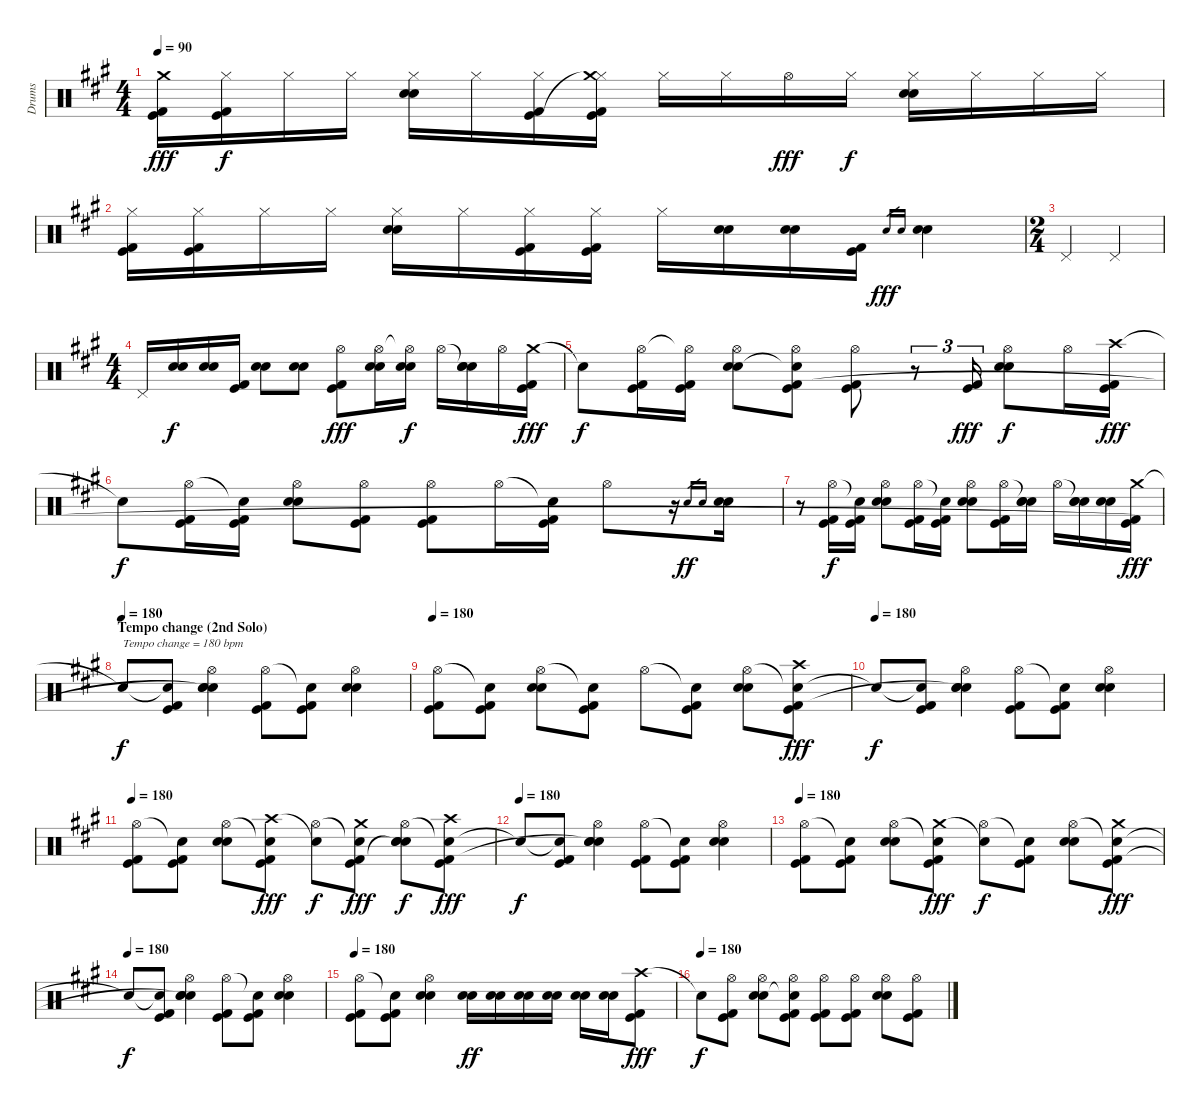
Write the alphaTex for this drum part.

\track ("Drums" "Drums") {instrument percussion}
\staff {score}
\articulation defaults
\ts (4 4)
\tempo 90
\clef neutral
\ks a
("Crash medium (hit)" "Kick (hit)" "Kick (hit) 2").16{dy fff} ("Hi-Hat (closed)" "Kick (hit)" "Kick (hit) 2").16{dy f} "Hi-Hat (closed)".16 "Hi-Hat (closed)".16 ("Hi-Hat (closed)" "Electric Snare (hit)" "Snare (hit) 2").16 "Hi-Hat (closed)".16 ("Hi-Hat (closed)" "Kick (hit)" "Kick (hit) 2").16 ("Hi-Hat (closed)" "Crash medium (hit)"{t} "Kick (hit)" "Kick (hit) 2").16 "Hi-Hat (closed)".16 "Hi-Hat (closed)".16 "Hi-Hat (open)".16{dy fff} "Hi-Hat (closed)".16{dy f} ("Hi-Hat (closed)" "Electric Snare (hit)" "Snare (hit) 2").16 "Hi-Hat (closed)".16 "Hi-Hat (closed)".16 "Hi-Hat (closed)".16 |
("Hi-Hat (closed)" "Kick (hit)" "Kick (hit) 2").16 ("Hi-Hat (closed)" "Kick (hit)" "Kick (hit) 2").16 "Hi-Hat (closed)".16 "Hi-Hat (closed)".16 ("Hi-Hat (closed)" "Electric Snare (hit)" "Snare (hit) 2").16 "Hi-Hat (closed)".16 ("Hi-Hat (closed)" "Kick (hit)" "Kick (hit) 2").16 ("Hi-Hat (closed)" "Kick (hit)" "Kick (hit) 2").16 "Hi-Hat (closed)".16 ("Electric Snare (hit)" "Snare (hit) 2").16 ("Electric Snare (hit)" "Snare (hit) 2").16 ("Kick (hit)" "Kick (hit) 2").16 "Electric Snare (hit)".16{gr dy fff} "Snare (hit) 2".16{gr} ("Electric Snare (hit)" "Snare (hit) 2").4 |
\ts (2 4)
"Pedal Hi-Hat (hit)".4 "Pedal Hi-Hat (hit)".4 |
\ts (4 4)
"Pedal Hi-Hat (hit)".16 ("Electric Snare (hit)" "Snare (hit) 2").16{dy f} ("Electric Snare (hit)" "Snare (hit) 2").16 ("Kick (hit)" "Kick (hit) 2").16 ("Electric Snare (hit)" "Snare (hit) 2").8 ("Electric Snare (hit)" "Snare (hit) 2").8 ("Hi-Hat (open)" "Kick (hit)" "Kick (hit) 2").8{dy fff} ("Hi-Hat (open)" "Electric Snare (hit)" "Snare (hit) 2").16 ("Hi-Hat (open)"{t} "Electric Snare (hit)" "Snare (hit) 2").16{dy f} "Hi-Hat (open)".16 ("Snare (hit)"{t} "Electric Snare (hit)" "Snare (hit) 2").16 "Hi-Hat (open)".16 ("Crash medium (hit)" "Kick (hit)" "Kick (hit) 2").16{dy fff} |
"Snare (hit)"{t}.8{dy f} ("Hi-Hat (open)" "Kick (hit)" "Kick (hit) 2").16 ("Hi-Hat (open)"{t} "Kick (hit)" "Kick (hit) 2").16 ("Hi-Hat (open)" "Electric Snare (hit)" "Snare (hit) 2").8 ("Hi-Hat (open)" "Snare (hit)"{t} "Kick (hit)" "Kick (hit) 2").8 ("Hi-Hat (open)" "Kick (hit)" "Kick (hit) 2").8 r.8{tu (3 2)} ("Kick (hit)" "Kick (hit) 2").16{tu (3 2) dy fff} ("Hi-Hat (open)" "Electric Snare (hit)" "Snare (hit) 2").8{dy f} "Hi-Hat (open)".16 ("Crash high (hit)" "Kick (hit)" "Kick (hit) 2").16{dy fff} |
"Snare (hit)"{t}.8{dy f} ("Hi-Hat (open)" "Kick (hit)" "Kick (hit) 2").16 ("Snare (hit)"{t} "Kick (hit)" "Kick (hit) 2").16 ("Hi-Hat (open)" "Electric Snare (hit)" "Snare (hit) 2").8 ("Hi-Hat (open)" "Kick (hit)" "Kick (hit) 2").8 ("Hi-Hat (open)" "Kick (hit)" "Kick (hit) 2").8 "Hi-Hat (open)".16 ("Snare (hit)"{t} "Kick (hit)" "Kick (hit) 2").16 "Hi-Hat (open)".8 r.16 "Electric Snare (hit)".16{gr dy ff} "Snare (hit) 2".16{gr} ("Electric Snare (hit)" "Snare (hit) 2").16 |
r.8 ("Hi-Hat (open)" "Kick (hit)" "Kick (hit) 2").16{dy f} ("Snare (hit)"{t} "Kick (hit)" "Kick (hit) 2").16 ("Hi-Hat (open)" "Electric Snare (hit)" "Snare (hit) 2").8 ("Hi-Hat (open)" "Kick (hit)" "Kick (hit) 2").16 ("Snare (hit)"{t} "Kick (hit)" "Kick (hit) 2").16 ("Hi-Hat (open)" "Electric Snare (hit)" "Snare (hit) 2").8 ("Hi-Hat (open)" "Kick (hit)" "Kick (hit) 2").16 ("Snare (hit)"{t} "Electric Snare (hit)" "Snare (hit) 2").16 "Hi-Hat (open)".16 ("Snare (hit)"{t} "Electric Snare (hit)" "Snare (hit) 2").16 ("Electric Snare (hit)" "Snare (hit) 2").16 ("Crash medium (hit)" "Kick (hit)" "Kick (hit) 2").16{dy fff} |
\section ("" "Tempo change (2nd Solo)")
\tempo (180)
"Snare (hit)"{t}.8{txt "Tempo change = 180 bpm" dy f} ("Snare (hit)"{t} "Kick (hit)" "Kick (hit) 2").8 ("Hi-Hat (open)" "Electric Snare (hit)" "Snare (hit) 2" "Snare (hit)"{t}).4 ("Hi-Hat (open)" "Kick (hit)" "Kick (hit) 2").8 ("Snare (hit)"{t} "Kick (hit)" "Kick (hit) 2").8 ("Hi-Hat (open)" "Electric Snare (hit)" "Snare (hit) 2").4 |
\tempo 180
("Hi-Hat (open)" "Kick (hit)" "Kick (hit) 2").8 ("Snare (hit)"{t} "Kick (hit)" "Kick (hit) 2").8 ("Hi-Hat (open)" "Electric Snare (hit)" "Snare (hit) 2").8 ("Snare (hit)"{t} "Kick (hit)" "Kick (hit) 2").8 "Hi-Hat (open)".8 ("Snare (hit)"{t} "Kick (hit)" "Kick (hit) 2").8 ("Hi-Hat (open)" "Electric Snare (hit)" "Snare (hit) 2").8 ("Snare (hit)"{t} "Crash high (hit)" "Kick (hit)" "Kick (hit) 2").8{dy fff} |
\tempo (180)
"Snare (hit)"{t}.8{dy f} ("Snare (hit)"{t} "Kick (hit)" "Kick (hit) 2").8 ("Hi-Hat (open)" "Electric Snare (hit)" "Snare (hit) 2" "Snare (hit)"{t}).4 ("Hi-Hat (open)" "Kick (hit)" "Kick (hit) 2").8 ("Snare (hit)"{t} "Kick (hit)" "Kick (hit) 2").8 ("Hi-Hat (open)" "Electric Snare (hit)" "Snare (hit) 2").4 |
\tempo 180
("Hi-Hat (open)" "Kick (hit)" "Kick (hit) 2").8 ("Snare (hit)"{t} "Kick (hit)" "Kick (hit) 2").8 ("Hi-Hat (open)" "Electric Snare (hit)" "Snare (hit) 2").8 ("Snare (hit)"{t} "Crash high (hit)" "Kick (hit)" "Kick (hit) 2").8{dy fff} ("Hi-Hat (open)" "Snare (hit)"{t}).8{dy f} ("Snare (hit)"{t} "Crash medium (hit)" "Kick (hit)" "Kick (hit) 2").8{dy fff} ("Hi-Hat (open)" "Electric Snare (hit)" "Snare (hit) 2" "Snare (hit)"{t}).8{dy f} ("Snare (hit)"{t} "Crash high (hit)" "Kick (hit)" "Kick (hit) 2").8{dy fff} |
\tempo (180)
"Snare (hit)"{t}.8{dy f} ("Snare (hit)"{t} "Kick (hit)" "Kick (hit) 2").8 ("Hi-Hat (open)" "Electric Snare (hit)" "Snare (hit) 2" "Snare (hit)"{t}).4 ("Hi-Hat (open)" "Kick (hit)" "Kick (hit) 2").8 ("Snare (hit)"{t} "Kick (hit)" "Kick (hit) 2").8 ("Hi-Hat (open)" "Electric Snare (hit)" "Snare (hit) 2").4 |
\tempo 180
("Hi-Hat (open)" "Kick (hit)" "Kick (hit) 2").8 ("Snare (hit)"{t} "Kick (hit)" "Kick (hit) 2").8 ("Hi-Hat (open)" "Electric Snare (hit)" "Snare (hit) 2").8 ("Snare (hit)"{t} "Crash medium (hit)" "Kick (hit)" "Kick (hit) 2").8{dy fff} ("Hi-Hat (open)" "Snare (hit)"{t}).8{dy f} ("Snare (hit)"{t} "Kick (hit)" "Kick (hit) 2").8 ("Hi-Hat (open)" "Electric Snare (hit)" "Snare (hit) 2").8 ("Snare (hit)"{t} "Crash medium (hit)" "Kick (hit)" "Kick (hit) 2").8{dy fff} |
\tempo (180)
"Snare (hit)"{t}.8{dy f} ("Snare (hit)"{t} "Kick (hit)" "Kick (hit) 2").8 ("Hi-Hat (open)" "Electric Snare (hit)" "Snare (hit) 2" "Snare (hit)"{t}).4 ("Hi-Hat (open)" "Kick (hit)" "Kick (hit) 2").8 ("Snare (hit)"{t} "Kick (hit)" "Kick (hit) 2").8 ("Hi-Hat (open)" "Electric Snare (hit)" "Snare (hit) 2").4 |
\tempo 180
("Hi-Hat (open)" "Kick (hit)" "Kick (hit) 2").8 ("Snare (hit)"{t} "Kick (hit)" "Kick (hit) 2").8 ("Hi-Hat (open)" "Electric Snare (hit)" "Snare (hit) 2").4 ("Electric Snare (hit)" "Snare (hit) 2").16{dy ff} ("Electric Snare (hit)" "Snare (hit) 2").16 ("Electric Snare (hit)" "Snare (hit) 2").16 ("Electric Snare (hit)" "Snare (hit) 2").16 ("Electric Snare (hit)" "Snare (hit) 2").16 ("Electric Snare (hit)" "Snare (hit) 2").16 ("Crash high (hit)" "Kick (hit)" "Kick (hit) 2").8{dy fff} |
\tempo (180)
"Snare (hit)"{t}.8{dy f} ("Hi-Hat (open)" "Kick (hit)" "Kick (hit) 2").8 ("Hi-Hat (open)" "Electric Snare (hit)" "Snare (hit) 2").8 ("Hi-Hat (open)" "Snare (hit)"{t} "Kick (hit)" "Kick (hit) 2").8 ("Hi-Hat (open)" "Kick (hit)" "Kick (hit) 2").8 ("Hi-Hat (open)" "Kick (hit)" "Kick (hit) 2").8 ("Hi-Hat (open)" "Electric Snare (hit)" "Snare (hit) 2").8 ("Hi-Hat (open)" "Kick (hit)" "Kick (hit) 2").8
